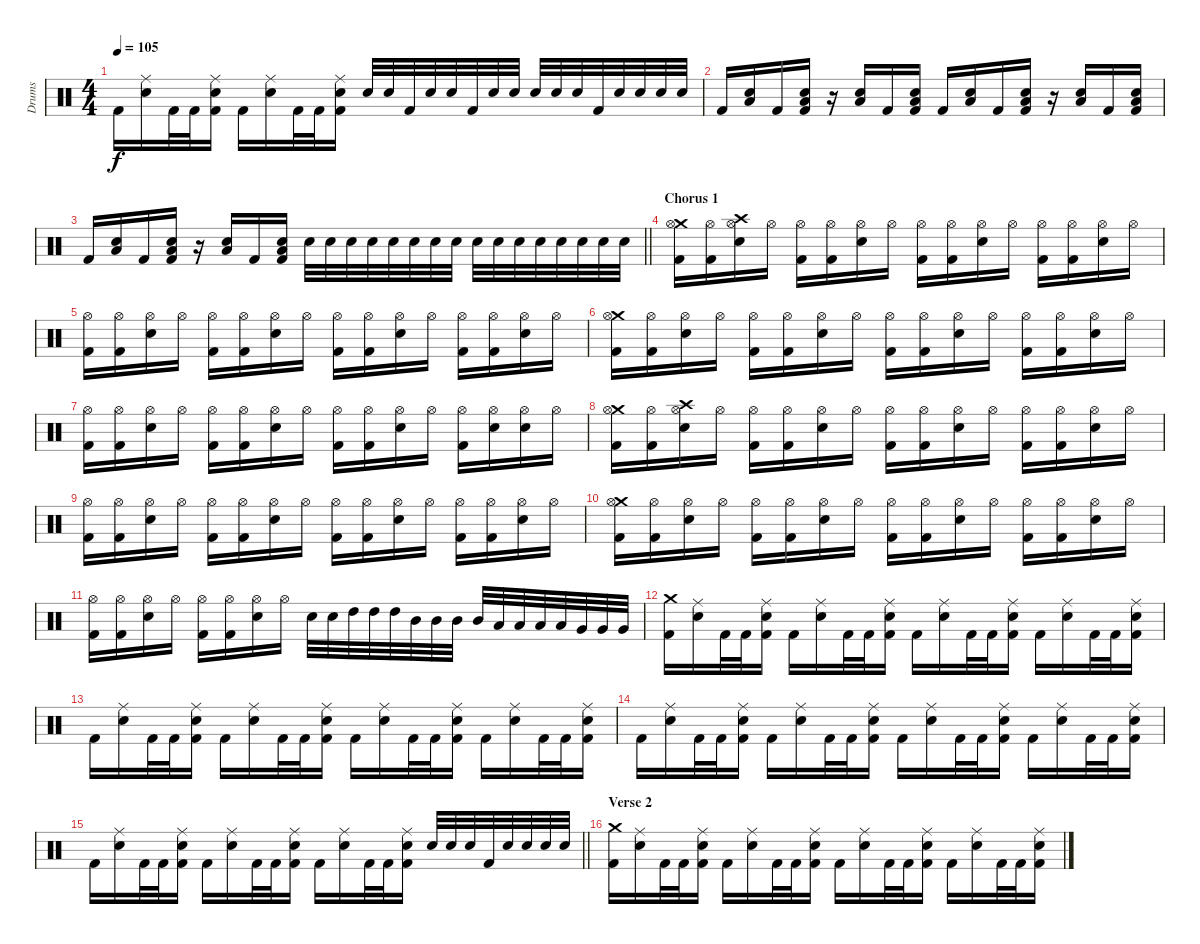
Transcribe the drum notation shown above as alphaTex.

\track ("Drums" "Drums") {instrument percussion}
\staff {score}
\articulation defaults
\ts (4 4)
\tempo 105
\clef neutral
\ks c "Kick (hit) 2".16{dy f}
("Ride (middle)" "Electric Snare (hit)").16 "Kick (hit) 2".32 "Kick (hit) 2".32 ("Ride (middle)" "Electric Snare (hit)" "Kick (hit) 2").16 "Kick (hit) 2".16 ("Ride (middle)" "Electric Snare (hit)").16 "Kick (hit) 2".32 "Kick (hit) 2".32 ("Ride (middle)" "Electric Snare (hit)" "Kick (hit) 2").16 "Electric Snare (hit)".32 "Electric Snare (hit)".32 "Kick (hit) 2".32 "Electric Snare (hit)".32 "Electric Snare (hit)".32 "Kick (hit) 2".32 "Electric Snare (hit)".32 "Electric Snare (hit)".32 "Electric Snare (hit)".32 "Electric Snare (hit)".32 "Electric Snare (hit)".32 "Kick (hit) 2".32 "Electric Snare (hit)".32 "Electric Snare (hit)".32 "Electric Snare (hit)".32 "Electric Snare (hit)".32 |
"Kick (hit) 2".16 ("Low Tom (hit)" "Electric Snare (hit)").16 "Kick (hit) 2".16 ("Low Tom (hit)" "Electric Snare (hit)" "Kick (hit) 2").16 r.16 ("Low Tom (hit)" "Electric Snare (hit)").16 "Kick (hit) 2".16 ("Low Tom (hit)" "Electric Snare (hit)" "Kick (hit) 2").16 "Kick (hit) 2".16 ("Low Tom (hit)" "Electric Snare (hit)").16 "Kick (hit) 2".16 ("Low Tom (hit)" "Electric Snare (hit)" "Kick (hit) 2").16 r.16 ("Low Tom (hit)" "Electric Snare (hit)").16 "Kick (hit) 2".16 ("Low Tom (hit)" "Electric Snare (hit)" "Kick (hit) 2").16 |
\barLineRight lightlight "Kick (hit) 2".16
("Low Tom (hit)" "Electric Snare (hit)").16 "Kick (hit) 2".16 ("Low Tom (hit)" "Electric Snare (hit)" "Kick (hit) 2").16 r.16 ("Low Tom (hit)" "Electric Snare (hit)").16 "Kick (hit) 2".16 ("Low Tom (hit)" "Electric Snare (hit)" "Kick (hit) 2").16 "Electric Snare (hit)".32 "Electric Snare (hit)".32 "Electric Snare (hit)".32 "Electric Snare (hit)".32 "Electric Snare (hit)".32 "Electric Snare (hit)".32 "Electric Snare (hit)".32 "Electric Snare (hit)".32 "Electric Snare (hit)".32 "Electric Snare (hit)".32 "Electric Snare (hit)".32 "Electric Snare (hit)".32 "Electric Snare (hit)".32 "Electric Snare (hit)".32 "Electric Snare (hit)".32 "Electric Snare (hit)".32 |
\section ("" "Chorus 1")
("Crash medium (hit)" "Hi-Hat (open)" "Kick (hit) 2").16 ("Hi-Hat (open)" "Kick (hit) 2").16 ("Crash high (hit)" "Hi-Hat (open)" "Electric Snare (hit)").16 "Hi-Hat (open)".16 ("Hi-Hat (open)" "Kick (hit) 2").16 ("Hi-Hat (open)" "Kick (hit) 2").16 ("Hi-Hat (open)" "Electric Snare (hit)").16 "Hi-Hat (open)".16 ("Hi-Hat (open)" "Kick (hit) 2").16 ("Hi-Hat (open)" "Kick (hit) 2").16 ("Hi-Hat (open)" "Electric Snare (hit)").16 "Hi-Hat (open)".16 ("Hi-Hat (open)" "Kick (hit) 2").16 ("Hi-Hat (open)" "Kick (hit) 2").16 ("Hi-Hat (open)" "Electric Snare (hit)").16 "Hi-Hat (open)".16 |
("Hi-Hat (open)" "Kick (hit) 2").16 ("Hi-Hat (open)" "Kick (hit) 2").16 ("Hi-Hat (open)" "Electric Snare (hit)").16 "Hi-Hat (open)".16 ("Hi-Hat (open)" "Kick (hit) 2").16 ("Hi-Hat (open)" "Kick (hit) 2").16 ("Hi-Hat (open)" "Electric Snare (hit)").16 "Hi-Hat (open)".16 ("Hi-Hat (open)" "Kick (hit) 2").16 ("Hi-Hat (open)" "Kick (hit) 2").16 ("Hi-Hat (open)" "Electric Snare (hit)").16 "Hi-Hat (open)".16 ("Hi-Hat (open)" "Kick (hit) 2").16 ("Hi-Hat (open)" "Kick (hit) 2").16 ("Hi-Hat (open)" "Electric Snare (hit)").16 "Hi-Hat (open)".16 |
("Crash medium (hit)" "Hi-Hat (open)" "Kick (hit) 2").16 ("Hi-Hat (open)" "Kick (hit) 2").16 ("Hi-Hat (open)" "Electric Snare (hit)").16 "Hi-Hat (open)".16 ("Hi-Hat (open)" "Kick (hit) 2").16 ("Hi-Hat (open)" "Kick (hit) 2").16 ("Hi-Hat (open)" "Electric Snare (hit)").16 "Hi-Hat (open)".16 ("Hi-Hat (open)" "Kick (hit) 2").16 ("Hi-Hat (open)" "Kick (hit) 2").16 ("Hi-Hat (open)" "Electric Snare (hit)").16 "Hi-Hat (open)".16 ("Hi-Hat (open)" "Kick (hit) 2").16 ("Hi-Hat (open)" "Kick (hit) 2").16 ("Hi-Hat (open)" "Electric Snare (hit)").16 "Hi-Hat (open)".16 |
("Hi-Hat (open)" "Kick (hit) 2").16 ("Hi-Hat (open)" "Kick (hit) 2").16 ("Hi-Hat (open)" "Electric Snare (hit)").16 "Hi-Hat (open)".16 ("Hi-Hat (open)" "Kick (hit) 2").16 ("Hi-Hat (open)" "Kick (hit) 2").16 ("Hi-Hat (open)" "Electric Snare (hit)").16 "Hi-Hat (open)".16 ("Hi-Hat (open)" "Kick (hit) 2").16 ("Hi-Hat (open)" "Kick (hit) 2").16 ("Hi-Hat (open)" "Electric Snare (hit)").16 "Hi-Hat (open)".16 ("Hi-Hat (open)" "Kick (hit) 2").16 ("Hi-Hat (open)" "Electric Snare (hit)").16 ("Hi-Hat (open)" "Electric Snare (hit)").16 "Hi-Hat (open)".16 |
("Crash medium (hit)" "Hi-Hat (open)" "Kick (hit) 2").16 ("Hi-Hat (open)" "Kick (hit) 2").16 ("Crash high (hit)" "Hi-Hat (open)" "Electric Snare (hit)").16 "Hi-Hat (open)".16 ("Hi-Hat (open)" "Kick (hit) 2").16 ("Hi-Hat (open)" "Kick (hit) 2").16 ("Hi-Hat (open)" "Electric Snare (hit)").16 "Hi-Hat (open)".16 ("Hi-Hat (open)" "Kick (hit) 2").16 ("Hi-Hat (open)" "Kick (hit) 2").16 ("Hi-Hat (open)" "Electric Snare (hit)").16 "Hi-Hat (open)".16 ("Hi-Hat (open)" "Kick (hit) 2").16 ("Hi-Hat (open)" "Kick (hit) 2").16 ("Hi-Hat (open)" "Electric Snare (hit)").16 "Hi-Hat (open)".16 |
("Hi-Hat (open)" "Kick (hit) 2").16 ("Hi-Hat (open)" "Kick (hit) 2").16 ("Hi-Hat (open)" "Electric Snare (hit)").16 "Hi-Hat (open)".16 ("Hi-Hat (open)" "Kick (hit) 2").16 ("Hi-Hat (open)" "Kick (hit) 2").16 ("Hi-Hat (open)" "Electric Snare (hit)").16 "Hi-Hat (open)".16 ("Hi-Hat (open)" "Kick (hit) 2").16 ("Hi-Hat (open)" "Kick (hit) 2").16 ("Hi-Hat (open)" "Electric Snare (hit)").16 "Hi-Hat (open)".16 ("Hi-Hat (open)" "Kick (hit) 2").16 ("Hi-Hat (open)" "Kick (hit) 2").16 ("Hi-Hat (open)" "Electric Snare (hit)").16 "Hi-Hat (open)".16 |
("Crash medium (hit)" "Hi-Hat (open)" "Kick (hit) 2").16 ("Hi-Hat (open)" "Kick (hit) 2").16 ("Hi-Hat (open)" "Electric Snare (hit)").16 "Hi-Hat (open)".16 ("Hi-Hat (open)" "Kick (hit) 2").16 ("Hi-Hat (open)" "Kick (hit) 2").16 ("Hi-Hat (open)" "Electric Snare (hit)").16 "Hi-Hat (open)".16 ("Hi-Hat (open)" "Kick (hit) 2").16 ("Hi-Hat (open)" "Kick (hit) 2").16 ("Hi-Hat (open)" "Electric Snare (hit)").16 "Hi-Hat (open)".16 ("Hi-Hat (open)" "Kick (hit) 2").16 ("Hi-Hat (open)" "Kick (hit) 2").16 ("Hi-Hat (open)" "Electric Snare (hit)").16 "Hi-Hat (open)".16 |
("Hi-Hat (open)" "Kick (hit) 2").16 ("Hi-Hat (open)" "Kick (hit) 2").16 ("Hi-Hat (open)" "Electric Snare (hit)").16 "Hi-Hat (open)".16 ("Hi-Hat (open)" "Kick (hit) 2").16 ("Hi-Hat (open)" "Kick (hit) 2").16 ("Hi-Hat (open)" "Electric Snare (hit)").16 "Hi-Hat (open)".16 "Electric Snare (hit)".32 "Electric Snare (hit)".32 "High Tom (hit)".32 "High Tom (hit)".32 "High Tom (hit)".32 "Mid Tom (hit)".32 "Mid Tom (hit)".32 "Mid Tom (hit)".32 "Mid Tom (hit)".32 "Low Tom (hit)".32 "Low Tom (hit)".32 "Low Tom (hit)".32 "Low Tom (hit)".32 "Very Low Tom (hit)".32 "Very Low Tom (hit)".32 "Very Low Tom (hit)".32 |
("Crash medium (hit)" "Kick (hit) 2").16 ("Ride (middle)" "Electric Snare (hit)").16 "Kick (hit) 2".32 "Kick (hit) 2".32 ("Ride (middle)" "Electric Snare (hit)" "Kick (hit) 2").16 "Kick (hit) 2".16 ("Ride (middle)" "Electric Snare (hit)").16 "Kick (hit) 2".32 "Kick (hit) 2".32 ("Ride (middle)" "Electric Snare (hit)" "Kick (hit) 2").16 "Kick (hit) 2".16 ("Ride (middle)" "Electric Snare (hit)").16 "Kick (hit) 2".32 "Kick (hit) 2".32 ("Ride (middle)" "Electric Snare (hit)" "Kick (hit) 2").16 "Kick (hit) 2".16 ("Ride (middle)" "Electric Snare (hit)").16 "Kick (hit) 2".32 "Kick (hit) 2".32 ("Ride (middle)" "Electric Snare (hit)" "Kick (hit) 2").16 |
"Kick (hit) 2".16 ("Ride (middle)" "Electric Snare (hit)").16 "Kick (hit) 2".32 "Kick (hit) 2".32 ("Ride (middle)" "Electric Snare (hit)" "Kick (hit) 2").16 "Kick (hit) 2".16 ("Ride (middle)" "Electric Snare (hit)").16 "Kick (hit) 2".32 "Kick (hit) 2".32 ("Ride (middle)" "Electric Snare (hit)" "Kick (hit) 2").16 "Kick (hit) 2".16 ("Ride (middle)" "Electric Snare (hit)").16 "Kick (hit) 2".32 "Kick (hit) 2".32 ("Ride (middle)" "Electric Snare (hit)" "Kick (hit) 2").16 "Kick (hit) 2".16 ("Ride (middle)" "Electric Snare (hit)").16 "Kick (hit) 2".32 "Kick (hit) 2".32 ("Ride (middle)" "Electric Snare (hit)" "Kick (hit) 2").16 |
"Kick (hit) 2".16 ("Ride (middle)" "Electric Snare (hit)").16 "Kick (hit) 2".32 "Kick (hit) 2".32 ("Ride (middle)" "Electric Snare (hit)" "Kick (hit) 2").16 "Kick (hit) 2".16 ("Ride (middle)" "Electric Snare (hit)").16 "Kick (hit) 2".32 "Kick (hit) 2".32 ("Ride (middle)" "Electric Snare (hit)" "Kick (hit) 2").16 "Kick (hit) 2".16 ("Ride (middle)" "Electric Snare (hit)").16 "Kick (hit) 2".32 "Kick (hit) 2".32 ("Ride (middle)" "Electric Snare (hit)" "Kick (hit) 2").16 "Kick (hit) 2".16 ("Ride (middle)" "Electric Snare (hit)").16 "Kick (hit) 2".32 "Kick (hit) 2".32 ("Ride (middle)" "Electric Snare (hit)" "Kick (hit) 2").16 |
\barLineRight lightlight "Kick (hit) 2".16
("Ride (middle)" "Electric Snare (hit)").16 "Kick (hit) 2".32 "Kick (hit) 2".32 ("Ride (middle)" "Electric Snare (hit)" "Kick (hit) 2").16 "Kick (hit) 2".16 ("Ride (middle)" "Electric Snare (hit)").16 "Kick (hit) 2".32 "Kick (hit) 2".32 ("Ride (middle)" "Electric Snare (hit)" "Kick (hit) 2").16 "Kick (hit) 2".16 ("Ride (middle)" "Electric Snare (hit)").16 "Kick (hit) 2".32 "Kick (hit) 2".32 ("Ride (middle)" "Electric Snare (hit)" "Kick (hit) 2").16 "Electric Snare (hit)".32 "Electric Snare (hit)".32 "Electric Snare (hit)".32 "Kick (hit) 2".32 "Electric Snare (hit)".32 "Electric Snare (hit)".32 "Electric Snare (hit)".32 "Electric Snare (hit)".32 |
\section ("" "Verse 2")
("Crash medium (hit)" "Kick (hit) 2").16 ("Ride (middle)" "Electric Snare (hit)").16 "Kick (hit) 2".32 "Kick (hit) 2".32 ("Ride (middle)" "Electric Snare (hit)" "Kick (hit) 2").16 "Kick (hit) 2".16 ("Ride (middle)" "Electric Snare (hit)").16 "Kick (hit) 2".32 "Kick (hit) 2".32 ("Ride (middle)" "Electric Snare (hit)" "Kick (hit) 2").16 "Kick (hit) 2".16 ("Ride (middle)" "Electric Snare (hit)").16 "Kick (hit) 2".32 "Kick (hit) 2".32 ("Ride (middle)" "Electric Snare (hit)" "Kick (hit) 2").16 "Kick (hit) 2".16 ("Ride (middle)" "Electric Snare (hit)").16 "Kick (hit) 2".32 "Kick (hit) 2".32 ("Ride (middle)" "Electric Snare (hit)" "Kick (hit) 2").16
